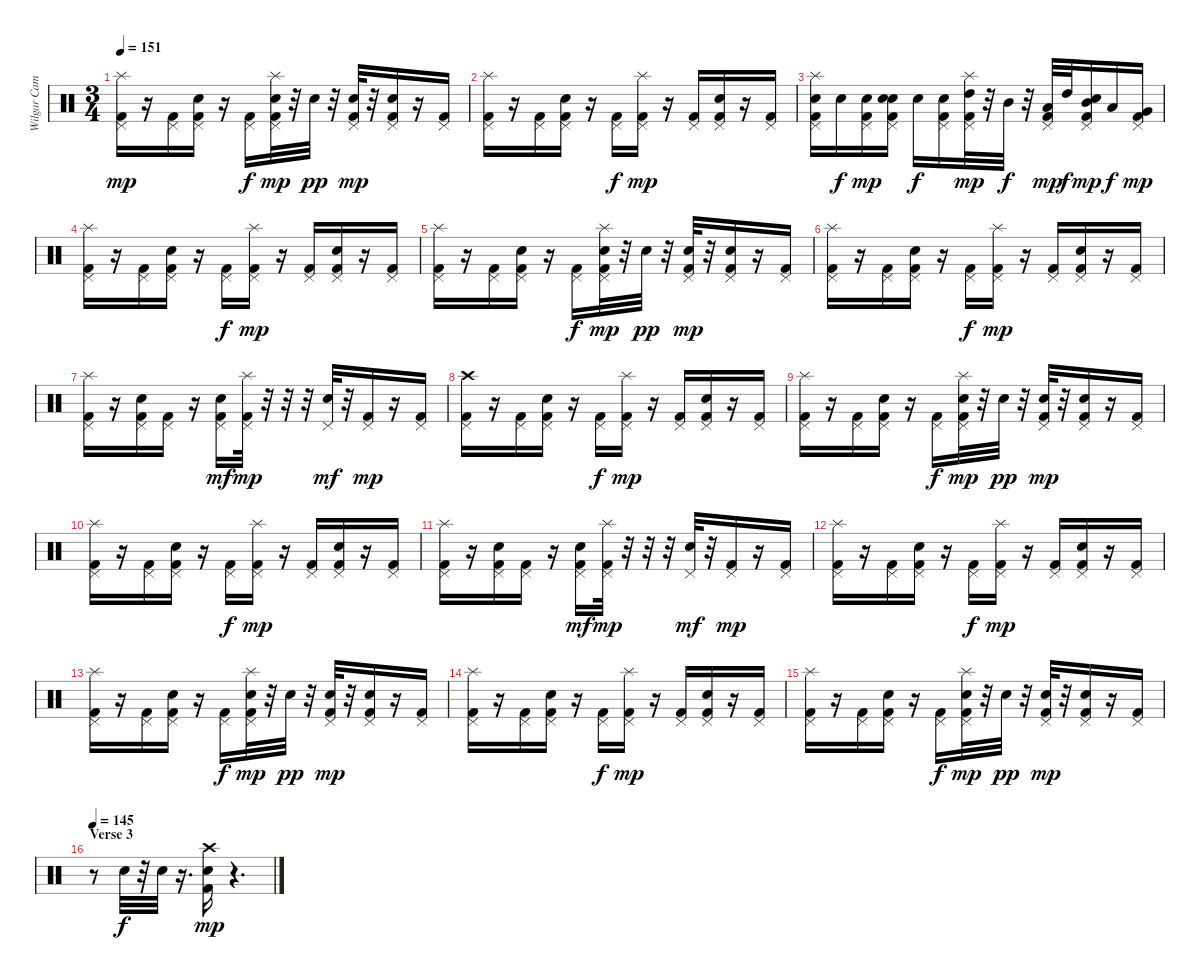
\track ("Wilgar Campbell" "Wilgar Cam") {instrument percussion}
\staff {score}
\articulation defaults
\ts (3 4)
\tempo 151
\clef neutral
\ks c
("Splash (hit)" "Pedal Hi-Hat (hit)" "Kick (hit) 2").16{dy mp} r.16 ("Pedal Hi-Hat (hit)" "Kick (hit) 2").16 ("Snare (hit) 2" "Pedal Hi-Hat (hit)" "Kick (hit) 2").16 r.16 ("Pedal Hi-Hat (hit)" "Kick (hit) 2").16{dy f} ("Splash (hit)" "Pedal Hi-Hat (hit)" "Electric Snare (hit)" "Kick (hit) 2").32{dy mp} r.32 "Electric Snare (hit)".32{dy pp} r.32 ("Pedal Hi-Hat (hit)" "Electric Snare (hit)" "Kick (hit) 2").32{dy mp} r.32 ("Snare (hit) 2" "Pedal Hi-Hat (hit)" "Kick (hit) 2").16 r.16 ("Pedal Hi-Hat (hit)" "Kick (hit) 2").16 |
("Splash (hit)" "Pedal Hi-Hat (hit)" "Kick (hit) 2").16 r.16 ("Pedal Hi-Hat (hit)" "Kick (hit) 2").16 ("Snare (hit) 2" "Pedal Hi-Hat (hit)" "Kick (hit) 2").16 r.16 ("Pedal Hi-Hat (hit)" "Kick (hit) 2").16{dy f} ("Splash (hit)" "Pedal Hi-Hat (hit)" "Kick (hit) 2").16{dy mp} r.16 ("Pedal Hi-Hat (hit)" "Kick (hit) 2").16 ("Snare (hit) 2" "Pedal Hi-Hat (hit)" "Kick (hit) 2").16 r.16 ("Pedal Hi-Hat (hit)" "Kick (hit) 2").16 |
("Splash (hit)" "Pedal Hi-Hat (hit)" "Snare (hit) 2" "Kick (hit) 2").16 "Snare (hit) 2".16{dy f} ("Pedal Hi-Hat (hit)" "Snare (hit) 2" "Kick (hit) 2").16{dy mp} ("Snare (hit) 2" "Pedal Hi-Hat (hit)" "Snare (hit) 2" "Kick (hit) 2").16 "Electric Snare (hit)".16{dy f} ("Pedal Hi-Hat (hit)" "Electric Snare (hit)" "Kick (hit) 2").16 ("Splash (hit)" "Pedal Hi-Hat (hit)" "High Tom (hit)" "Kick (hit) 2").32{dy mp} r.32 "Mid Tom (hit)".32{dy f} r.32 ("Pedal Hi-Hat (hit)" "Low Tom (hit)" "Kick (hit) 2").32{dy mp} "High Tom (hit)".32{dy f} ("Snare (hit) 2" "Pedal Hi-Hat (hit)" "Mid Tom (hit)" "Kick (hit) 2").16{dy mp} "Low Tom (hit)".16{dy f} ("Pedal Hi-Hat (hit)" "Very Low Tom (hit)" "Kick (hit) 2").16{dy mp} |
("Splash (hit)" "Pedal Hi-Hat (hit)" "Kick (hit) 2").16 r.16 ("Pedal Hi-Hat (hit)" "Kick (hit) 2").16 ("Snare (hit) 2" "Pedal Hi-Hat (hit)" "Kick (hit) 2").16 r.16 ("Pedal Hi-Hat (hit)" "Kick (hit) 2").16{dy f} ("Splash (hit)" "Pedal Hi-Hat (hit)" "Kick (hit) 2").16{dy mp} r.16 ("Pedal Hi-Hat (hit)" "Kick (hit) 2").16 ("Snare (hit) 2" "Pedal Hi-Hat (hit)" "Kick (hit) 2").16 r.16 ("Pedal Hi-Hat (hit)" "Kick (hit) 2").16 |
("Splash (hit)" "Pedal Hi-Hat (hit)" "Kick (hit) 2").16 r.16 ("Pedal Hi-Hat (hit)" "Kick (hit) 2").16 ("Snare (hit) 2" "Pedal Hi-Hat (hit)" "Kick (hit) 2").16 r.16 ("Pedal Hi-Hat (hit)" "Kick (hit) 2").16{dy f} ("Splash (hit)" "Pedal Hi-Hat (hit)" "Electric Snare (hit)" "Kick (hit) 2").32{dy mp} r.32 "Electric Snare (hit)".32{dy pp} r.32 ("Pedal Hi-Hat (hit)" "Electric Snare (hit)" "Kick (hit) 2").32{dy mp} r.32 ("Snare (hit) 2" "Pedal Hi-Hat (hit)" "Kick (hit) 2").16 r.16 ("Pedal Hi-Hat (hit)" "Kick (hit) 2").16 |
("Splash (hit)" "Pedal Hi-Hat (hit)" "Kick (hit) 2").16 r.16 ("Pedal Hi-Hat (hit)" "Kick (hit) 2").16 ("Snare (hit) 2" "Pedal Hi-Hat (hit)" "Kick (hit) 2").16 r.16 ("Pedal Hi-Hat (hit)" "Kick (hit) 2").16{dy f} ("Splash (hit)" "Pedal Hi-Hat (hit)" "Kick (hit) 2").16{dy mp} r.16 ("Pedal Hi-Hat (hit)" "Kick (hit) 2").16 ("Snare (hit) 2" "Pedal Hi-Hat (hit)" "Kick (hit) 2").16 r.16 ("Pedal Hi-Hat (hit)" "Kick (hit) 2").16 |
("Splash (hit)" "Pedal Hi-Hat (hit)" "Kick (hit) 2").16 r.16 ("Pedal Hi-Hat (hit)" "Electric Snare (hit)" "Kick (hit) 2").16 ("Pedal Hi-Hat (hit)" "Kick (hit) 2").16 r.16 ("Pedal Hi-Hat (hit)" "Electric Snare (hit)" "Kick (hit) 2").16{dy mf} ("Splash (hit)" "Pedal Hi-Hat (hit)" "Kick (hit) 2").32{dy mp} r.32 r.32 r.32 ("Pedal Hi-Hat (hit)" "Electric Snare (hit)").32{dy mf} r.32 ("Pedal Hi-Hat (hit)" "Kick (hit) 2").16{dy mp} r.16 ("Pedal Hi-Hat (hit)" "Kick (hit) 2").16 |
("Crash high (hit)" "Pedal Hi-Hat (hit)" "Kick (hit) 2").16 r.16 ("Pedal Hi-Hat (hit)" "Kick (hit) 2").16 ("Snare (hit) 2" "Pedal Hi-Hat (hit)" "Kick (hit) 2").16 r.16 ("Pedal Hi-Hat (hit)" "Kick (hit) 2").16{dy f} ("Splash (hit)" "Pedal Hi-Hat (hit)" "Kick (hit) 2").16{dy mp} r.16 ("Pedal Hi-Hat (hit)" "Kick (hit) 2").16 ("Snare (hit) 2" "Pedal Hi-Hat (hit)" "Kick (hit) 2").16 r.16 ("Pedal Hi-Hat (hit)" "Kick (hit) 2").16 |
("Splash (hit)" "Pedal Hi-Hat (hit)" "Kick (hit) 2").16 r.16 ("Pedal Hi-Hat (hit)" "Kick (hit) 2").16 ("Snare (hit) 2" "Pedal Hi-Hat (hit)" "Kick (hit) 2").16 r.16 ("Pedal Hi-Hat (hit)" "Kick (hit) 2").16{dy f} ("Splash (hit)" "Pedal Hi-Hat (hit)" "Electric Snare (hit)" "Kick (hit) 2").32{dy mp} r.32 "Electric Snare (hit)".32{dy pp} r.32 ("Pedal Hi-Hat (hit)" "Electric Snare (hit)" "Kick (hit) 2").32{dy mp} r.32 ("Snare (hit) 2" "Pedal Hi-Hat (hit)" "Kick (hit) 2").16 r.16 ("Pedal Hi-Hat (hit)" "Kick (hit) 2").16 |
("Splash (hit)" "Pedal Hi-Hat (hit)" "Kick (hit) 2").16 r.16 ("Pedal Hi-Hat (hit)" "Kick (hit) 2").16 ("Snare (hit) 2" "Pedal Hi-Hat (hit)" "Kick (hit) 2").16 r.16 ("Pedal Hi-Hat (hit)" "Kick (hit) 2").16{dy f} ("Splash (hit)" "Pedal Hi-Hat (hit)" "Kick (hit) 2").16{dy mp} r.16 ("Pedal Hi-Hat (hit)" "Kick (hit) 2").16 ("Snare (hit) 2" "Pedal Hi-Hat (hit)" "Kick (hit) 2").16 r.16 ("Pedal Hi-Hat (hit)" "Kick (hit) 2").16 |
("Splash (hit)" "Pedal Hi-Hat (hit)" "Kick (hit) 2").16 r.16 ("Pedal Hi-Hat (hit)" "Electric Snare (hit)" "Kick (hit) 2").16 ("Pedal Hi-Hat (hit)" "Kick (hit) 2").16 r.16 ("Pedal Hi-Hat (hit)" "Electric Snare (hit)" "Kick (hit) 2").16{dy mf} ("Splash (hit)" "Pedal Hi-Hat (hit)" "Kick (hit) 2").32{dy mp} r.32 r.32 r.32 ("Pedal Hi-Hat (hit)" "Electric Snare (hit)").32{dy mf} r.32 ("Pedal Hi-Hat (hit)" "Kick (hit) 2").16{dy mp} r.16 ("Pedal Hi-Hat (hit)" "Kick (hit) 2").16 |
("Splash (hit)" "Pedal Hi-Hat (hit)" "Kick (hit) 2").16 r.16 ("Pedal Hi-Hat (hit)" "Kick (hit) 2").16 ("Snare (hit) 2" "Pedal Hi-Hat (hit)" "Kick (hit) 2").16 r.16 ("Pedal Hi-Hat (hit)" "Kick (hit) 2").16{dy f} ("Splash (hit)" "Pedal Hi-Hat (hit)" "Kick (hit) 2").16{dy mp} r.16 ("Pedal Hi-Hat (hit)" "Kick (hit) 2").16 ("Snare (hit) 2" "Pedal Hi-Hat (hit)" "Kick (hit) 2").16 r.16 ("Pedal Hi-Hat (hit)" "Kick (hit) 2").16 |
("Splash (hit)" "Pedal Hi-Hat (hit)" "Kick (hit) 2").16 r.16 ("Pedal Hi-Hat (hit)" "Kick (hit) 2").16 ("Snare (hit) 2" "Pedal Hi-Hat (hit)" "Kick (hit) 2").16 r.16 ("Pedal Hi-Hat (hit)" "Kick (hit) 2").16{dy f} ("Splash (hit)" "Pedal Hi-Hat (hit)" "Electric Snare (hit)" "Kick (hit) 2").32{dy mp} r.32 "Electric Snare (hit)".32{dy pp} r.32 ("Pedal Hi-Hat (hit)" "Electric Snare (hit)" "Kick (hit) 2").32{dy mp} r.32 ("Snare (hit) 2" "Pedal Hi-Hat (hit)" "Kick (hit) 2").16 r.16 ("Pedal Hi-Hat (hit)" "Kick (hit) 2").16 |
("Splash (hit)" "Pedal Hi-Hat (hit)" "Kick (hit) 2").16 r.16 ("Pedal Hi-Hat (hit)" "Kick (hit) 2").16 ("Snare (hit) 2" "Pedal Hi-Hat (hit)" "Kick (hit) 2").16 r.16 ("Pedal Hi-Hat (hit)" "Kick (hit) 2").16{dy f} ("Splash (hit)" "Pedal Hi-Hat (hit)" "Kick (hit) 2").16{dy mp} r.16 ("Pedal Hi-Hat (hit)" "Kick (hit) 2").16 ("Snare (hit) 2" "Pedal Hi-Hat (hit)" "Kick (hit) 2").16 r.16 ("Pedal Hi-Hat (hit)" "Kick (hit) 2").16 |
("Splash (hit)" "Pedal Hi-Hat (hit)" "Kick (hit) 2").16 r.16 ("Pedal Hi-Hat (hit)" "Kick (hit) 2").16 ("Snare (hit) 2" "Pedal Hi-Hat (hit)" "Kick (hit) 2").16 r.16 ("Pedal Hi-Hat (hit)" "Kick (hit) 2").16{dy f} ("Splash (hit)" "Pedal Hi-Hat (hit)" "Electric Snare (hit)" "Kick (hit) 2").32{dy mp} r.32 "Electric Snare (hit)".32{dy pp} r.32 ("Pedal Hi-Hat (hit)" "Electric Snare (hit)" "Kick (hit) 2").32{dy mp} r.32 ("Snare (hit) 2" "Pedal Hi-Hat (hit)" "Kick (hit) 2").16 r.16 ("Pedal Hi-Hat (hit)" "Kick (hit) 2").16 |
\section ("" "Verse 3")
\tempo 145
r.8 "Snare (hit) 2".32{dy f} r.32 "Snare (hit) 2".32 r.16{d} ("Crash high (hit)" "Snare (hit) 2" "Kick (hit) 2").16{dy mp} r.4{d}
